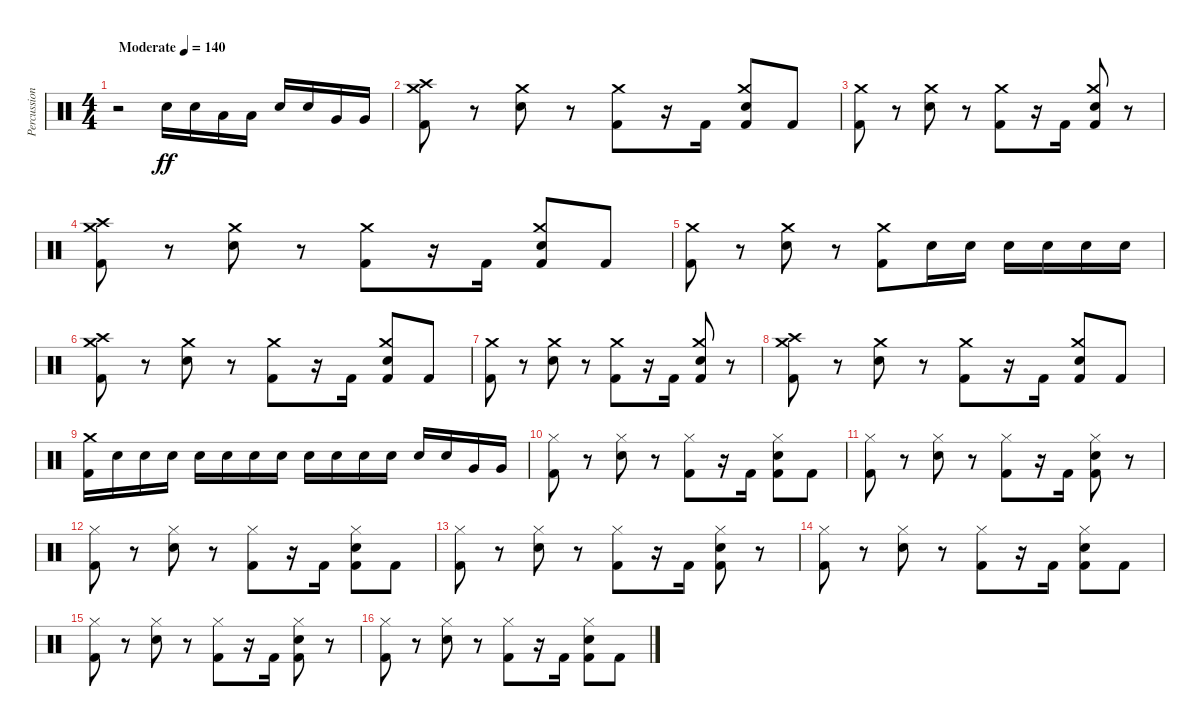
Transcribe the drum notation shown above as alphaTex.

\track ("Percussion" "Percussion") {instrument percussion}
\staff {score}
\articulation defaults
\ts (4 4)
\tempo (140 "Moderate")
\clef neutral
\ks c
r.2{dy ff} "Electric Snare (hit)".16 "Electric Snare (hit)".16 "Low Tom (hit)".16 "Low Tom (hit)".16 "Electric Snare (hit)".16 "Electric Snare (hit)".16 "Very Low Tom (hit)".16 "Very Low Tom (hit)".16 |
("Crash medium (hit)" "Crash high (hit)" "Kick (hit) 2").8 r.8 ("Crash medium (hit)" "Electric Snare (hit)").8 r.8 ("Crash medium (hit)" "Kick (hit) 2").8 r.16 "Kick (hit) 2".16 ("Crash medium (hit)" "Electric Snare (hit)" "Kick (hit) 2").8 "Kick (hit) 2".8 |
("Crash medium (hit)" "Kick (hit) 2").8 r.8 ("Crash medium (hit)" "Electric Snare (hit)").8 r.8 ("Crash medium (hit)" "Kick (hit) 2").8 r.16 "Kick (hit) 2".16 ("Crash medium (hit)" "Electric Snare (hit)" "Kick (hit) 2").8 r.8 |
("Crash medium (hit)" "Crash high (hit)" "Kick (hit) 2").8 r.8 ("Crash medium (hit)" "Electric Snare (hit)").8 r.8 ("Crash medium (hit)" "Kick (hit) 2").8 r.16 "Kick (hit) 2".16 ("Crash medium (hit)" "Electric Snare (hit)" "Kick (hit) 2").8 "Kick (hit) 2".8 |
("Crash medium (hit)" "Kick (hit) 2").8 r.8 ("Crash medium (hit)" "Electric Snare (hit)").8 r.8 ("Crash medium (hit)" "Kick (hit) 2").8 "Electric Snare (hit)".16 "Electric Snare (hit)".16 "Electric Snare (hit)".16 "Electric Snare (hit)".16 "Electric Snare (hit)".16 "Electric Snare (hit)".16 |
("Crash medium (hit)" "Crash high (hit)" "Kick (hit) 2").8 r.8 ("Crash medium (hit)" "Electric Snare (hit)").8 r.8 ("Crash medium (hit)" "Kick (hit) 2").8 r.16 "Kick (hit) 2".16 ("Crash medium (hit)" "Electric Snare (hit)" "Kick (hit) 2").8 "Kick (hit) 2".8 |
("Crash medium (hit)" "Kick (hit) 2").8 r.8 ("Crash medium (hit)" "Electric Snare (hit)").8 r.8 ("Crash medium (hit)" "Kick (hit) 2").8 r.16 "Kick (hit) 2".16 ("Crash medium (hit)" "Electric Snare (hit)" "Kick (hit) 2").8 r.8 |
("Crash medium (hit)" "Crash high (hit)" "Kick (hit) 2").8 r.8 ("Crash medium (hit)" "Electric Snare (hit)").8 r.8 ("Crash medium (hit)" "Kick (hit) 2").8 r.16 "Kick (hit) 2".16 ("Crash medium (hit)" "Electric Snare (hit)" "Kick (hit) 2").8 "Kick (hit) 2".8 |
("Crash medium (hit)" "Kick (hit) 2").16 "Electric Snare (hit)".16 "Electric Snare (hit)".16 "Electric Snare (hit)".16 "Electric Snare (hit)".16 "Electric Snare (hit)".16 "Electric Snare (hit)".16 "Electric Snare (hit)".16 "Electric Snare (hit)".16 "Electric Snare (hit)".16 "Electric Snare (hit)".16 "Electric Snare (hit)".16 "Electric Snare (hit)".16 "Electric Snare (hit)".16 "Very Low Tom (hit)".16 "Very Low Tom (hit)".16 |
("Hi-Hat (closed)" "Kick (hit) 2").8 r.8 ("Hi-Hat (closed)" "Electric Snare (hit)").8 r.8 ("Hi-Hat (closed)" "Kick (hit) 2").8 r.16 "Kick (hit) 2".16 ("Hi-Hat (closed)" "Electric Snare (hit)" "Kick (hit) 2").8 "Kick (hit) 2".8 |
("Hi-Hat (closed)" "Kick (hit) 2").8 r.8 ("Hi-Hat (closed)" "Electric Snare (hit)").8 r.8 ("Hi-Hat (closed)" "Kick (hit) 2").8 r.16 "Kick (hit) 2".16 ("Hi-Hat (closed)" "Electric Snare (hit)" "Kick (hit) 2").8 r.8 |
("Hi-Hat (closed)" "Kick (hit) 2").8 r.8 ("Hi-Hat (closed)" "Electric Snare (hit)").8 r.8 ("Hi-Hat (closed)" "Kick (hit) 2").8 r.16 "Kick (hit) 2".16 ("Hi-Hat (closed)" "Electric Snare (hit)" "Kick (hit) 2").8 "Kick (hit) 2".8 |
("Hi-Hat (closed)" "Kick (hit) 2").8 r.8 ("Hi-Hat (closed)" "Electric Snare (hit)").8 r.8 ("Hi-Hat (closed)" "Kick (hit) 2").8 r.16 "Kick (hit) 2".16 ("Hi-Hat (closed)" "Electric Snare (hit)" "Kick (hit) 2").8 r.8 |
("Hi-Hat (closed)" "Kick (hit) 2").8 r.8 ("Hi-Hat (closed)" "Electric Snare (hit)").8 r.8 ("Hi-Hat (closed)" "Kick (hit) 2").8 r.16 "Kick (hit) 2".16 ("Hi-Hat (closed)" "Electric Snare (hit)" "Kick (hit) 2").8 "Kick (hit) 2".8 |
("Hi-Hat (closed)" "Kick (hit) 2").8 r.8 ("Hi-Hat (closed)" "Electric Snare (hit)").8 r.8 ("Hi-Hat (closed)" "Kick (hit) 2").8 r.16 "Kick (hit) 2".16 ("Hi-Hat (closed)" "Electric Snare (hit)" "Kick (hit) 2").8 r.8 |
("Hi-Hat (closed)" "Kick (hit) 2").8 r.8 ("Hi-Hat (closed)" "Electric Snare (hit)").8 r.8 ("Hi-Hat (closed)" "Kick (hit) 2").8 r.16 "Kick (hit) 2".16 ("Hi-Hat (closed)" "Electric Snare (hit)" "Kick (hit) 2").8 "Kick (hit) 2".8
